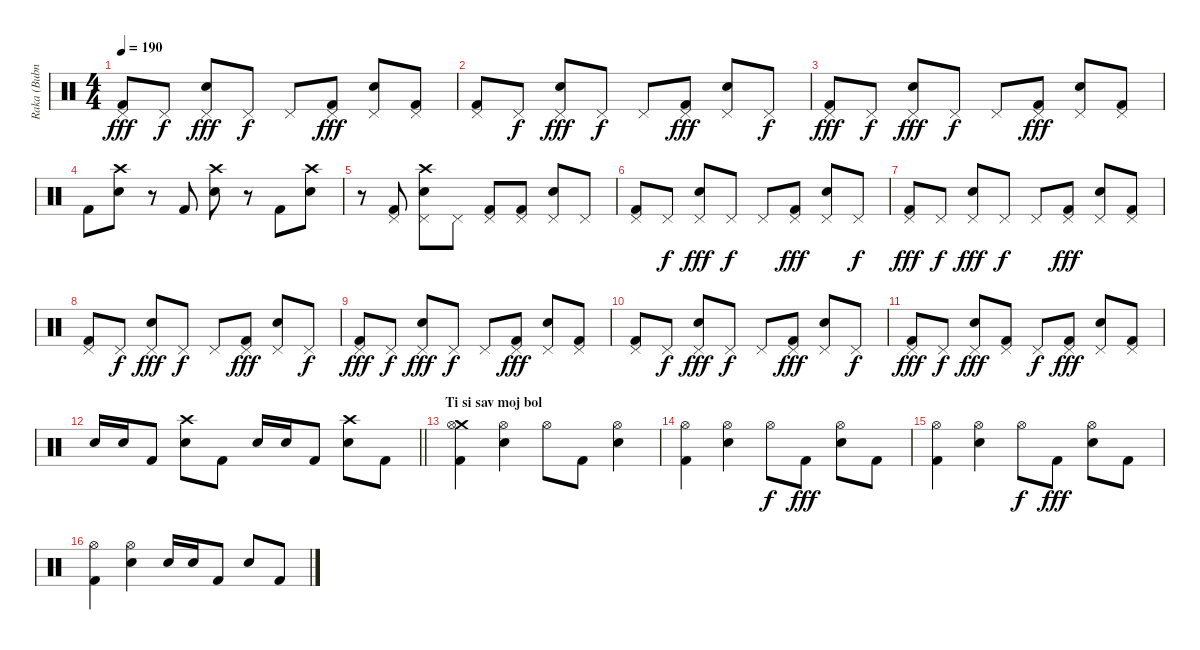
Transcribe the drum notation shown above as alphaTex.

\track ("Raka (Bubnjevi)" "Raka (Bubn") {instrument percussion}
\staff {score}
\articulation defaults
\ts (4 4)
\tempo 190
\clef neutral
\ks c
("Pedal Hi-Hat (hit)" "Kick (hit) 2").8{dy fff} "Pedal Hi-Hat (hit)".8{dy f} ("Pedal Hi-Hat (hit)" "Snare (hit) 2").8{dy fff} "Pedal Hi-Hat (hit)".8{dy f} "Pedal Hi-Hat (hit)".8 ("Pedal Hi-Hat (hit)" "Kick (hit) 2").8{dy fff} ("Pedal Hi-Hat (hit)" "Snare (hit) 2").8 ("Pedal Hi-Hat (hit)" "Kick (hit) 2").8 |
("Pedal Hi-Hat (hit)" "Kick (hit) 2").8 "Pedal Hi-Hat (hit)".8{dy f} ("Pedal Hi-Hat (hit)" "Snare (hit) 2").8{dy fff} "Pedal Hi-Hat (hit)".8{dy f} "Pedal Hi-Hat (hit)".8 ("Pedal Hi-Hat (hit)" "Kick (hit) 2").8{dy fff} ("Pedal Hi-Hat (hit)" "Snare (hit) 2").8 "Pedal Hi-Hat (hit)".8{dy f} |
("Pedal Hi-Hat (hit)" "Kick (hit) 2").8{dy fff} "Pedal Hi-Hat (hit)".8{dy f} ("Pedal Hi-Hat (hit)" "Snare (hit) 2").8{dy fff} "Pedal Hi-Hat (hit)".8{dy f} "Pedal Hi-Hat (hit)".8 ("Pedal Hi-Hat (hit)" "Kick (hit) 2").8{dy fff} ("Pedal Hi-Hat (hit)" "Snare (hit) 2").8 ("Pedal Hi-Hat (hit)" "Kick (hit) 2").8 |
"Kick (hit) 2".8 ("Crash high (hit)" "Snare (hit) 2").8 r.8 "Kick (hit) 2".8 ("Crash high (hit)" "Snare (hit) 2").8 r.8 "Kick (hit) 2".8 ("Crash high (hit)" "Snare (hit) 2").8 |
r.8 ("Pedal Hi-Hat (hit)" "Kick (hit) 2").8 ("Crash high (hit)" "Pedal Hi-Hat (hit)" "Snare (hit) 2").8 "Pedal Hi-Hat (hit)".8 ("Pedal Hi-Hat (hit)" "Kick (hit) 2").8 ("Pedal Hi-Hat (hit)" "Kick (hit) 2").8 ("Pedal Hi-Hat (hit)" "Snare (hit) 2").8 "Pedal Hi-Hat (hit)".8 |
("Pedal Hi-Hat (hit)" "Kick (hit) 2").8 "Pedal Hi-Hat (hit)".8{dy f} ("Pedal Hi-Hat (hit)" "Snare (hit) 2").8{dy fff} "Pedal Hi-Hat (hit)".8{dy f} "Pedal Hi-Hat (hit)".8 ("Pedal Hi-Hat (hit)" "Kick (hit) 2").8{dy fff} ("Pedal Hi-Hat (hit)" "Snare (hit) 2").8 "Pedal Hi-Hat (hit)".8{dy f} |
("Pedal Hi-Hat (hit)" "Kick (hit) 2").8{dy fff} "Pedal Hi-Hat (hit)".8{dy f} ("Pedal Hi-Hat (hit)" "Snare (hit) 2").8{dy fff} "Pedal Hi-Hat (hit)".8{dy f} "Pedal Hi-Hat (hit)".8 ("Pedal Hi-Hat (hit)" "Kick (hit) 2").8{dy fff} ("Pedal Hi-Hat (hit)" "Snare (hit) 2").8 ("Pedal Hi-Hat (hit)" "Kick (hit) 2").8 |
("Pedal Hi-Hat (hit)" "Kick (hit) 2").8 "Pedal Hi-Hat (hit)".8{dy f} ("Pedal Hi-Hat (hit)" "Snare (hit) 2").8{dy fff} "Pedal Hi-Hat (hit)".8{dy f} "Pedal Hi-Hat (hit)".8 ("Pedal Hi-Hat (hit)" "Kick (hit) 2").8{dy fff} ("Pedal Hi-Hat (hit)" "Snare (hit) 2").8 "Pedal Hi-Hat (hit)".8{dy f} |
("Pedal Hi-Hat (hit)" "Kick (hit) 2").8{dy fff} "Pedal Hi-Hat (hit)".8{dy f} ("Pedal Hi-Hat (hit)" "Snare (hit) 2").8{dy fff} "Pedal Hi-Hat (hit)".8{dy f} "Pedal Hi-Hat (hit)".8 ("Pedal Hi-Hat (hit)" "Kick (hit) 2").8{dy fff} ("Pedal Hi-Hat (hit)" "Snare (hit) 2").8 ("Pedal Hi-Hat (hit)" "Kick (hit) 2").8 |
("Pedal Hi-Hat (hit)" "Kick (hit) 2").8 "Pedal Hi-Hat (hit)".8{dy f} ("Pedal Hi-Hat (hit)" "Snare (hit) 2").8{dy fff} "Pedal Hi-Hat (hit)".8{dy f} "Pedal Hi-Hat (hit)".8 ("Pedal Hi-Hat (hit)" "Kick (hit) 2").8{dy fff} ("Pedal Hi-Hat (hit)" "Snare (hit) 2").8 "Pedal Hi-Hat (hit)".8{dy f} |
("Pedal Hi-Hat (hit)" "Kick (hit) 2").8{dy fff} "Pedal Hi-Hat (hit)".8{dy f} ("Pedal Hi-Hat (hit)" "Snare (hit) 2").8{dy fff} ("Pedal Hi-Hat (hit)" "Kick (hit) 2").8 "Pedal Hi-Hat (hit)".8{dy f} ("Pedal Hi-Hat (hit)" "Kick (hit) 2").8{dy fff} ("Pedal Hi-Hat (hit)" "Snare (hit) 2").8 ("Pedal Hi-Hat (hit)" "Kick (hit) 2").8 |
\barLineRight lightlight "Snare (hit) 2".16 "Snare (hit) 2".16 "Kick (hit) 2".8
("Crash high (hit)" "Snare (hit) 2").8 "Kick (hit) 2".8 "Snare (hit) 2".16 "Snare (hit) 2".16 "Kick (hit) 2".8 ("Crash high (hit)" "Snare (hit) 2").8 "Kick (hit) 2".8 |
\section ("" "Ti si sav moj bol")
("Crash medium (hit)" "Hi-Hat (open)" "Kick (hit) 2").4 ("Hi-Hat (open)" "Snare (hit) 2").4 "Hi-Hat (open)".8 "Kick (hit) 2".8 ("Hi-Hat (open)" "Snare (hit) 2").4 |
("Hi-Hat (open)" "Kick (hit) 2").4 ("Hi-Hat (open)" "Snare (hit) 2").4 "Hi-Hat (open)".8{dy f} "Kick (hit) 2".8{dy fff} ("Hi-Hat (open)" "Snare (hit) 2").8 "Kick (hit) 2".8 |
("Hi-Hat (open)" "Kick (hit) 2").4 ("Hi-Hat (open)" "Snare (hit) 2").4 "Hi-Hat (open)".8{dy f} "Kick (hit) 2".8{dy fff} ("Hi-Hat (open)" "Snare (hit) 2").8 "Kick (hit) 2".8 |
("Hi-Hat (open)" "Kick (hit) 2").4 ("Hi-Hat (open)" "Snare (hit) 2").4 "Snare (hit) 2".16 "Snare (hit) 2".16 "Kick (hit) 2".8 "Snare (hit) 2".8 "Kick (hit) 2".8
